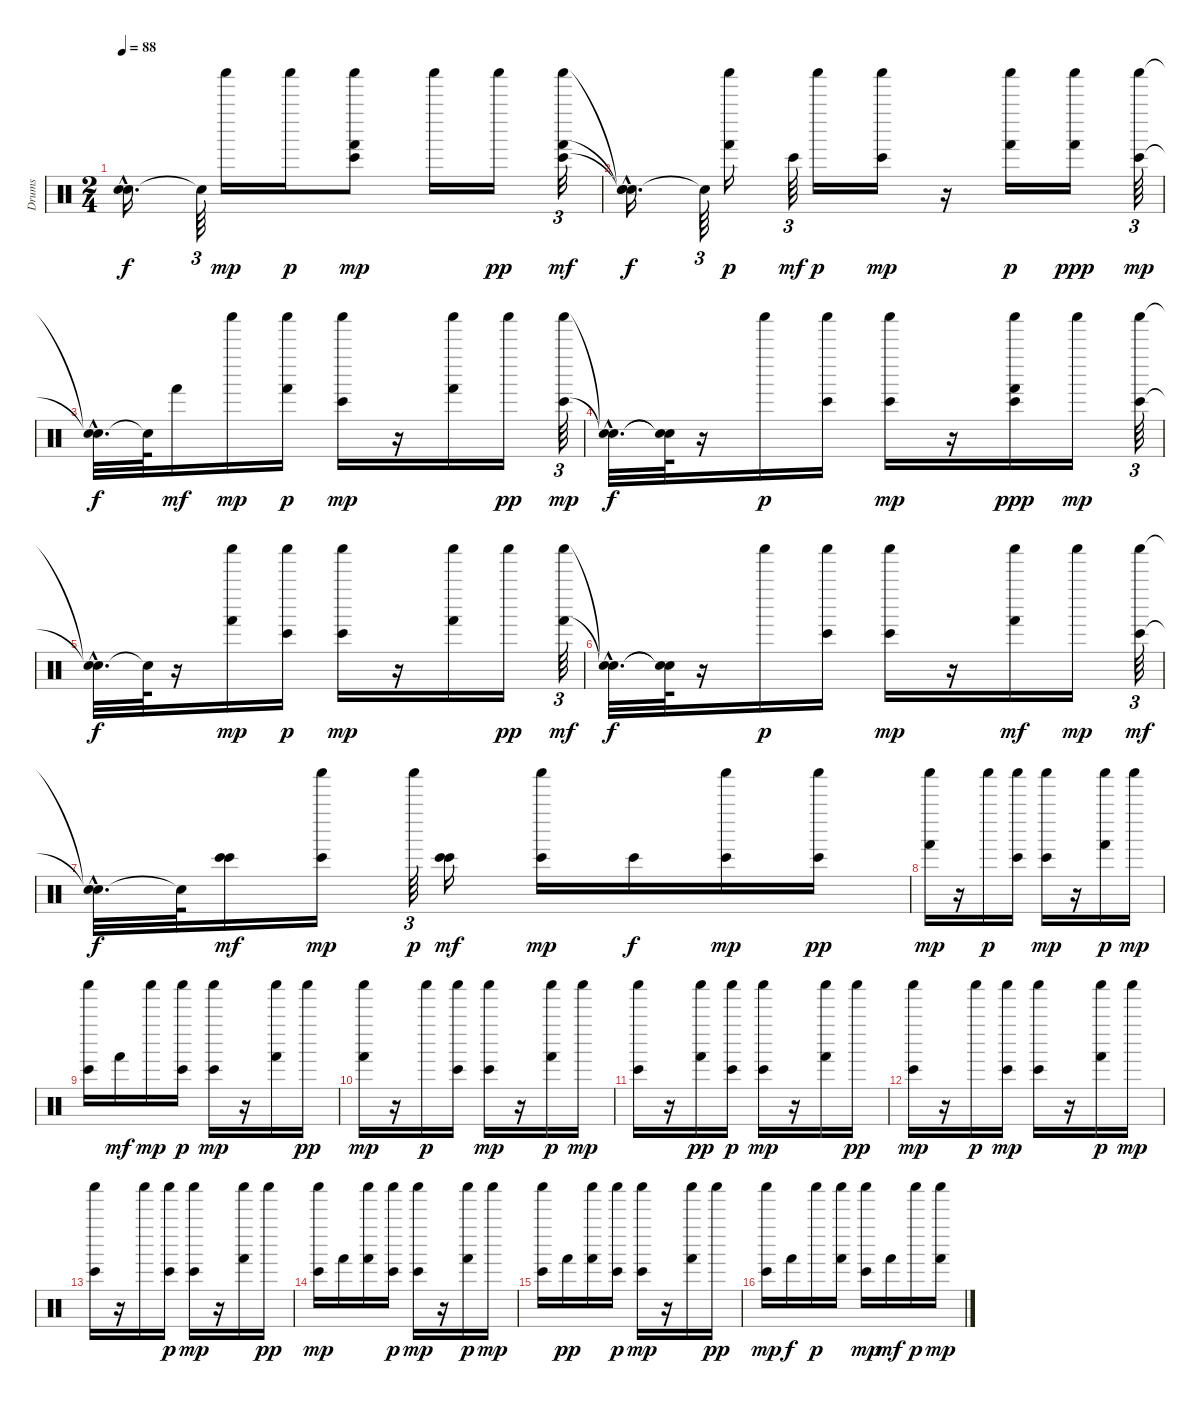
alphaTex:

\track ("Drums" "Drums") {instrument percussion}
\staff {score}
\articulation defaults
\ts (2 4)
\tempo 88
\clef neutral
\ks c
("Snare (hit)"{hac t} "Snare (hit)"{hac t}).16{d dy f} "Snare (hit)"{t}.64{tu (3 2)} "Shaker (hit)".16{dy mp} "Shaker (hit)".16{dy p} ("Bongo High (hit)" "Hand (hit)" "Shaker (hit)").8{dy mp} "Shaker (hit)".16 "Shaker (hit)".16{dy pp} ("Shaker (hit)" "Hand (hit)" "Bongo High (hit)").32{tu (3 2) dy mf} |
("Snare (hit)"{hac t} "Snare (hit)"{hac t} "Snare (hit)"{hac t}).16{d dy f} "Snare (hit)"{t}.64{tu (3 2)} ("Hand (hit)" "Shaker (hit)").16{dy p} "Bongo High (hit)".64{tu (3 2) dy mf} "Shaker (hit)".16{dy p} ("Bongo High (hit)" "Shaker (hit)").16{dy mp} r.16 ("Shaker (hit)" "Hand (hit)").16{dy p} ("Shaker (hit)" "Hand (hit)").16{dy ppp} ("Bongo High (hit)" "Shaker (hit)").64{tu (3 2) dy mp} |
("Snare (hit)"{hac t} "Snare (hit)"{hac t}).32{d dy f} "Snare (hit)"{t}.64 "Hand (hit)".16{dy mf} "Shaker (hit)".16{dy mp} ("Hand (hit)" "Shaker (hit)").16{dy p} ("Bongo High (hit)" "Shaker (hit)").16{dy mp} r.16 ("Shaker (hit)" "Hand (hit)").16 "Shaker (hit)".16{dy pp} ("Shaker (hit)" "Bongo High (hit)").64{tu (3 2) dy mp} |
("Snare (hit)"{hac t} "Snare (hit)"{hac t}).32{d dy f} ("Snare (hit)"{t} "Snare (hit)"{t}).64 r.16 "Shaker (hit)".16{dy p} ("Bongo High (hit)" "Shaker (hit)").16 ("Bongo High (hit)" "Shaker (hit)").16{dy mp} r.16 ("Shaker (hit)" "Hand (hit)" "Bongo High (hit)").16{dy ppp} "Shaker (hit)".16{dy mp} ("Shaker (hit)" "Bongo High (hit)").64{tu (3 2)} |
("Snare (hit)"{hac t} "Snare (hit)"{hac t}).32{d dy f} "Snare (hit)"{t}.64 r.16 ("Hand (hit)" "Shaker (hit)").16{dy mp} ("Bongo High (hit)" "Shaker (hit)").16{dy p} ("Shaker (hit)" "Bongo High (hit)").16{dy mp} r.16 ("Shaker (hit)" "Hand (hit)").16 "Shaker (hit)".16{dy pp} ("Shaker (hit)" "Hand (hit)").64{tu (3 2) dy mf} |
("Snare (hit)"{hac t} "Snare (hit)"{hac t}).32{d dy f} ("Snare (hit)"{t} "Snare (hit)"{t}).64 r.16 "Shaker (hit)".16{dy p} ("Shaker (hit)" "Bongo High (hit)").16 ("Shaker (hit)" "Bongo High (hit)").16{dy mp} r.16 ("Shaker (hit)" "Hand (hit)").16{dy mf} "Shaker (hit)".16{dy mp} ("Shaker (hit)" "Bongo High (hit)").64{tu (3 2) dy mf} |
("Snare (hit)"{hac t} "Snare (hit)"{hac t}).32{d dy f} "Snare (hit)"{t}.64 ("Bongo High (hit)" "Bongo High (hit)").16{dy mf} ("Shaker (hit)" "Bongo High (hit)").16{dy mp} "Shaker (hit)".64{tu (3 2) dy p} ("Bongo High (hit)" "Bongo High (hit)").16{dy mf} ("Bongo High (hit)" "Shaker (hit)").16{dy mp} "Bongo High (hit)".16{dy f} ("Shaker (hit)" "Bongo High (hit)").16{dy mp} ("Shaker (hit)" "Bongo High (hit)").16{dy pp} |
("Shaker (hit)" "Hand (hit)").16{dy mp} r.16 "Shaker (hit)".16{dy p} ("Shaker (hit)" "Bongo High (hit)").16 ("Shaker (hit)" "Bongo High (hit)").16{dy mp} r.16 ("Shaker (hit)" "Hand (hit)").16{dy p} "Shaker (hit)".16{dy mp} |
("Shaker (hit)" "Bongo High (hit)").16 "Hand (hit)".16{dy mf} "Shaker (hit)".16{dy mp} ("Shaker (hit)" "Bongo High (hit)").16{dy p} ("Shaker (hit)" "Bongo High (hit)").16{dy mp} r.16 ("Shaker (hit)" "Hand (hit)").16 "Shaker (hit)".16{dy pp} |
("Shaker (hit)" "Hand (hit)").16{dy mp} r.16 "Shaker (hit)".16{dy p} ("Shaker (hit)" "Bongo High (hit)").16 ("Shaker (hit)" "Bongo High (hit)").16{dy mp} r.16 ("Hand (hit)" "Shaker (hit)").16{dy p} "Shaker (hit)".16{dy mp} |
("Shaker (hit)" "Bongo High (hit)").16 r.16 ("Shaker (hit)" "Hand (hit)").16{dy pp} ("Bongo High (hit)" "Shaker (hit)").16{dy p} ("Shaker (hit)" "Bongo High (hit)").16{dy mp} r.16 ("Shaker (hit)" "Hand (hit)").16 "Shaker (hit)".16{dy pp} |
("Shaker (hit)" "Bongo High (hit)").16{dy mp} r.16 "Shaker (hit)".16{dy p} ("Shaker (hit)" "Bongo High (hit)").16{dy mp} ("Shaker (hit)" "Bongo High (hit)").16 r.16 ("Shaker (hit)" "Hand (hit)").16{dy p} "Shaker (hit)".16{dy mp} |
("Shaker (hit)" "Bongo High (hit)").16 r.16 "Shaker (hit)".16 ("Bongo High (hit)" "Shaker (hit)").16{dy p} ("Shaker (hit)" "Bongo High (hit)").16{dy mp} r.16 ("Shaker (hit)" "Hand (hit)").16 "Shaker (hit)".16{dy pp} |
("Shaker (hit)" "Bongo High (hit)").16{dy mp} "Hand (hit)".16 ("Shaker (hit)" "Hand (hit)").16 ("Bongo High (hit)" "Shaker (hit)").16{dy p} ("Bongo High (hit)" "Shaker (hit)").16{dy mp} r.16 ("Shaker (hit)" "Hand (hit)").16{dy p} "Shaker (hit)".16{dy mp} |
("Shaker (hit)" "Bongo High (hit)").16 "Hand (hit)".16{dy pp} ("Shaker (hit)" "Hand (hit)").16 ("Shaker (hit)" "Bongo High (hit)").16{dy p} ("Shaker (hit)" "Bongo High (hit)").16{dy mp} r.16 ("Shaker (hit)" "Hand (hit)").16 "Shaker (hit)".16{dy pp} |
("Shaker (hit)" "Bongo High (hit)").16{dy mp} "Hand (hit)".16{dy f} "Shaker (hit)".16{dy p} ("Hand (hit)" "Shaker (hit)").16 ("Bongo High (hit)" "Shaker (hit)").16{dy mp} "Hand (hit)".16{dy mf} "Shaker (hit)".16{dy p} ("Hand (hit)" "Shaker (hit)").16{dy mp}
